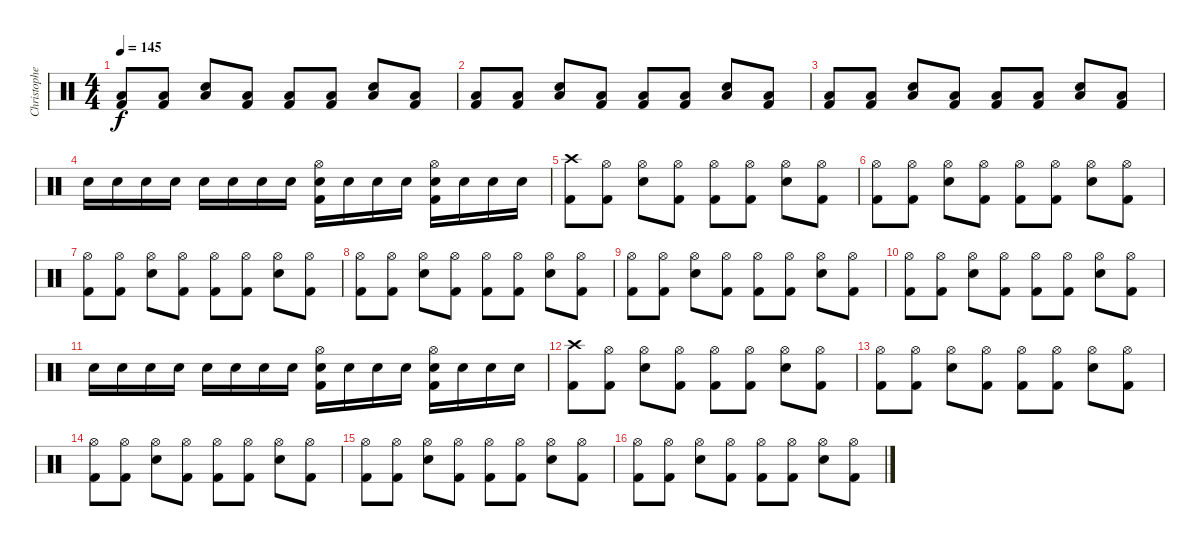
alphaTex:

\track ("Christopher - Drums" "Christophe") {instrument percussion}
\staff {score}
\articulation defaults
\ts (4 4)
\tempo 145
\clef neutral
\ks c
("Low Tom (hit)" "Kick (hit) 2").8{dy f} ("Low Tom (hit)" "Kick (hit) 2").8 ("Low Tom (hit)" "Electric Snare (hit)").8 ("Low Tom (hit)" "Kick (hit) 2").8 ("Low Tom (hit)" "Kick (hit) 2").8 ("Low Tom (hit)" "Kick (hit) 2").8 ("Low Tom (hit)" "Electric Snare (hit)").8 ("Low Tom (hit)" "Kick (hit) 2").8 |
("Low Tom (hit)" "Kick (hit) 2").8 ("Low Tom (hit)" "Kick (hit) 2").8 ("Low Tom (hit)" "Electric Snare (hit)").8 ("Low Tom (hit)" "Kick (hit) 2").8 ("Low Tom (hit)" "Kick (hit) 2").8 ("Low Tom (hit)" "Kick (hit) 2").8 ("Low Tom (hit)" "Electric Snare (hit)").8 ("Low Tom (hit)" "Kick (hit) 2").8 |
("Low Tom (hit)" "Kick (hit) 2").8 ("Low Tom (hit)" "Kick (hit) 2").8 ("Low Tom (hit)" "Electric Snare (hit)").8 ("Low Tom (hit)" "Kick (hit) 2").8 ("Low Tom (hit)" "Kick (hit) 2").8 ("Low Tom (hit)" "Kick (hit) 2").8 ("Low Tom (hit)" "Electric Snare (hit)").8 ("Low Tom (hit)" "Kick (hit) 2").8 |
"Electric Snare (hit)".16 "Electric Snare (hit)".16 "Electric Snare (hit)".16 "Electric Snare (hit)".16 "Electric Snare (hit)".16 "Electric Snare (hit)".16 "Electric Snare (hit)".16 "Electric Snare (hit)".16 ("Hi-Hat (open)" "Electric Snare (hit)" "Kick (hit) 2").16 "Electric Snare (hit)".16 "Electric Snare (hit)".16 "Electric Snare (hit)".16 ("Hi-Hat (open)" "Electric Snare (hit)" "Kick (hit) 2").16 "Electric Snare (hit)".16 "Electric Snare (hit)".16 "Electric Snare (hit)".16 |
("Crash high (hit)" "Kick (hit) 2").8 ("Hi-Hat (open)" "Kick (hit) 2").8 ("Hi-Hat (open)" "Electric Snare (hit)").8 ("Hi-Hat (open)" "Kick (hit) 2").8 ("Hi-Hat (open)" "Kick (hit) 2").8 ("Hi-Hat (open)" "Kick (hit) 2").8 ("Hi-Hat (open)" "Electric Snare (hit)").8 ("Hi-Hat (open)" "Kick (hit) 2").8 |
("Hi-Hat (open)" "Kick (hit) 2").8 ("Hi-Hat (open)" "Kick (hit) 2").8 ("Hi-Hat (open)" "Electric Snare (hit)").8 ("Hi-Hat (open)" "Kick (hit) 2").8 ("Hi-Hat (open)" "Kick (hit) 2").8 ("Hi-Hat (open)" "Kick (hit) 2").8 ("Hi-Hat (open)" "Electric Snare (hit)").8 ("Hi-Hat (open)" "Kick (hit) 2").8 |
("Hi-Hat (open)" "Kick (hit) 2").8 ("Hi-Hat (open)" "Kick (hit) 2").8 ("Hi-Hat (open)" "Electric Snare (hit)").8 ("Hi-Hat (open)" "Kick (hit) 2").8 ("Hi-Hat (open)" "Kick (hit) 2").8 ("Hi-Hat (open)" "Kick (hit) 2").8 ("Hi-Hat (open)" "Electric Snare (hit)").8 ("Hi-Hat (open)" "Kick (hit) 2").8 |
("Hi-Hat (open)" "Kick (hit) 2").8 ("Hi-Hat (open)" "Kick (hit) 2").8 ("Hi-Hat (open)" "Electric Snare (hit)").8 ("Hi-Hat (open)" "Kick (hit) 2").8 ("Hi-Hat (open)" "Kick (hit) 2").8 ("Hi-Hat (open)" "Kick (hit) 2").8 ("Hi-Hat (open)" "Electric Snare (hit)").8 ("Hi-Hat (open)" "Kick (hit) 2").8 |
("Hi-Hat (open)" "Kick (hit) 2").8 ("Hi-Hat (open)" "Kick (hit) 2").8 ("Hi-Hat (open)" "Electric Snare (hit)").8 ("Hi-Hat (open)" "Kick (hit) 2").8 ("Hi-Hat (open)" "Kick (hit) 2").8 ("Hi-Hat (open)" "Kick (hit) 2").8 ("Hi-Hat (open)" "Electric Snare (hit)").8 ("Hi-Hat (open)" "Kick (hit) 2").8 |
("Hi-Hat (open)" "Kick (hit) 2").8 ("Hi-Hat (open)" "Kick (hit) 2").8 ("Hi-Hat (open)" "Electric Snare (hit)").8 ("Hi-Hat (open)" "Kick (hit) 2").8 ("Hi-Hat (open)" "Kick (hit) 2").8 ("Hi-Hat (open)" "Kick (hit) 2").8 ("Hi-Hat (open)" "Electric Snare (hit)").8 ("Hi-Hat (open)" "Kick (hit) 2").8 |
"Electric Snare (hit)".16 "Electric Snare (hit)".16 "Electric Snare (hit)".16 "Electric Snare (hit)".16 "Electric Snare (hit)".16 "Electric Snare (hit)".16 "Electric Snare (hit)".16 "Electric Snare (hit)".16 ("Hi-Hat (open)" "Electric Snare (hit)" "Kick (hit) 2").16 "Electric Snare (hit)".16 "Electric Snare (hit)".16 "Electric Snare (hit)".16 ("Hi-Hat (open)" "Electric Snare (hit)" "Kick (hit) 2").16 "Electric Snare (hit)".16 "Electric Snare (hit)".16 "Electric Snare (hit)".16 |
("Crash high (hit)" "Kick (hit) 2").8 ("Hi-Hat (open)" "Kick (hit) 2").8 ("Hi-Hat (open)" "Electric Snare (hit)").8 ("Hi-Hat (open)" "Kick (hit) 2").8 ("Hi-Hat (open)" "Kick (hit) 2").8 ("Hi-Hat (open)" "Kick (hit) 2").8 ("Hi-Hat (open)" "Electric Snare (hit)").8 ("Hi-Hat (open)" "Kick (hit) 2").8 |
("Hi-Hat (open)" "Kick (hit) 2").8 ("Hi-Hat (open)" "Kick (hit) 2").8 ("Hi-Hat (open)" "Electric Snare (hit)").8 ("Hi-Hat (open)" "Kick (hit) 2").8 ("Hi-Hat (open)" "Kick (hit) 2").8 ("Hi-Hat (open)" "Kick (hit) 2").8 ("Hi-Hat (open)" "Electric Snare (hit)").8 ("Hi-Hat (open)" "Kick (hit) 2").8 |
("Hi-Hat (open)" "Kick (hit) 2").8 ("Hi-Hat (open)" "Kick (hit) 2").8 ("Hi-Hat (open)" "Electric Snare (hit)").8 ("Hi-Hat (open)" "Kick (hit) 2").8 ("Hi-Hat (open)" "Kick (hit) 2").8 ("Hi-Hat (open)" "Kick (hit) 2").8 ("Hi-Hat (open)" "Electric Snare (hit)").8 ("Hi-Hat (open)" "Kick (hit) 2").8 |
("Hi-Hat (open)" "Kick (hit) 2").8 ("Hi-Hat (open)" "Kick (hit) 2").8 ("Hi-Hat (open)" "Electric Snare (hit)").8 ("Hi-Hat (open)" "Kick (hit) 2").8 ("Hi-Hat (open)" "Kick (hit) 2").8 ("Hi-Hat (open)" "Kick (hit) 2").8 ("Hi-Hat (open)" "Electric Snare (hit)").8 ("Hi-Hat (open)" "Kick (hit) 2").8 |
("Hi-Hat (open)" "Kick (hit) 2").8 ("Hi-Hat (open)" "Kick (hit) 2").8 ("Hi-Hat (open)" "Electric Snare (hit)").8 ("Hi-Hat (open)" "Kick (hit) 2").8 ("Hi-Hat (open)" "Kick (hit) 2").8 ("Hi-Hat (open)" "Kick (hit) 2").8 ("Hi-Hat (open)" "Electric Snare (hit)").8 ("Hi-Hat (open)" "Kick (hit) 2").8
